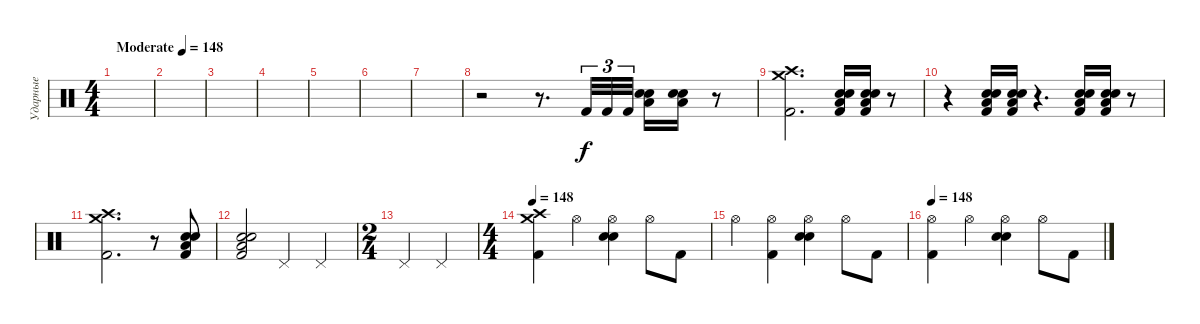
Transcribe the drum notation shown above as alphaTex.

\track ("Ударные" "Ударные") {instrument percussion}
\staff {score}
\articulation defaults
\ts (4 4)
\tempo (148 "Moderate")
\tempo 74
\tempo (148 "Moderate")
\clef neutral
\ks c
|
|
|
|
|
|
|
r.2 r.8{d} "Kick (hit) 2".32{tu (3 2)} "Kick (hit) 2".32{tu (3 2)} "Kick (hit) 2".32{tu (3 2)} ("Low Floor Tom (hit)" "Electric Snare (hit)" "Snare (hit) 2").16 ("Low Floor Tom (hit)" "Electric Snare (hit)" "Snare (hit) 2").16 r.8 |
("Crash high (hit)" "Crash medium (hit)" "Kick (hit) 2").2{d} ("Electric Snare (hit)" "Snare (hit) 2" "Low Floor Tom (hit)" "Kick (hit) 2").16 ("Electric Snare (hit)" "Snare (hit) 2" "Low Floor Tom (hit)" "Kick (hit) 2").16 r.8 |
r.4 ("Electric Snare (hit)" "Snare (hit) 2" "Low Floor Tom (hit)" "Kick (hit) 2").16 ("Electric Snare (hit)" "Snare (hit) 2" "Low Floor Tom (hit)" "Kick (hit) 2").16 r.4{d} ("Electric Snare (hit)" "Snare (hit) 2" "Low Floor Tom (hit)" "Kick (hit) 2").16 ("Electric Snare (hit)" "Snare (hit) 2" "Low Floor Tom (hit)" "Kick (hit) 2").16 r.8 |
("Crash high (hit)" "Crash medium (hit)" "Kick (hit) 2").2{d} r.8 ("Electric Snare (hit)" "Snare (hit) 2" "Low Floor Tom (hit)" "Kick (hit) 2").8 |
("Electric Snare (hit)" "Snare (hit) 2" "Low Floor Tom (hit)" "Kick (hit) 2").2 "Pedal Hi-Hat (hit)".4 "Pedal Hi-Hat (hit)".4 |
\ts (2 4)
"Pedal Hi-Hat (hit)".4 "Pedal Hi-Hat (hit)".4 |
\ts (4 4)
\tempo 148
("Crash high (hit)" "Crash medium (hit)" "Kick (hit) 2").4 "Hi-Hat (open)".4 ("Hi-Hat (open)" "Snare (hit) 2" "Electric Snare (hit)").4 "Hi-Hat (open)".8 "Kick (hit) 2".8 |
"Hi-Hat (open)".4 ("Hi-Hat (open)" "Kick (hit) 2").4 ("Hi-Hat (open)" "Snare (hit) 2" "Electric Snare (hit)").4 "Hi-Hat (open)".8 "Kick (hit) 2".8 |
\tempo 148
("Hi-Hat (open)" "Kick (hit) 2").4 "Hi-Hat (open)".4 ("Hi-Hat (open)" "Snare (hit) 2" "Electric Snare (hit)").4 "Hi-Hat (open)".8 "Kick (hit) 2".8
